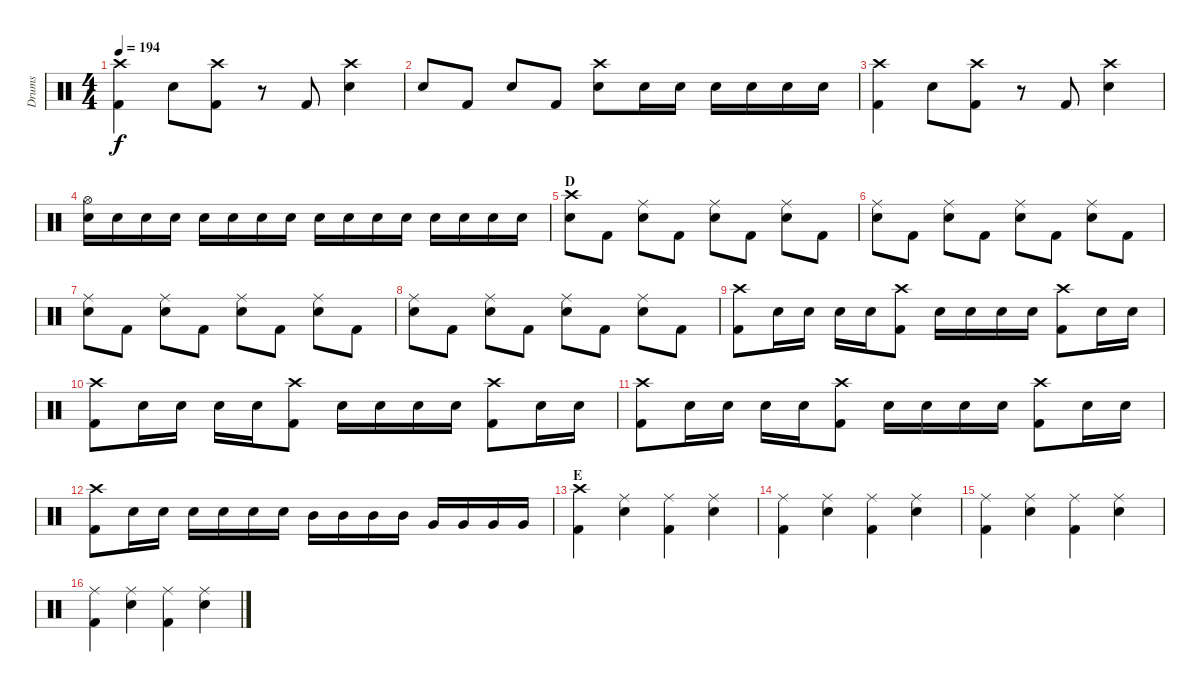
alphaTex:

\track ("Drums" "Drums") {instrument percussion}
\staff {score}
\articulation defaults
\ts (4 4)
\tempo 194
\clef neutral
\ks c
("Crash high (hit)" "Kick (hit) 2").4{dy f} "Electric Snare (hit)".8 ("Crash high (hit)" "Kick (hit) 2").8 r.8 "Kick (hit) 2".8 ("Crash high (hit)" "Electric Snare (hit)").4 |
"Electric Snare (hit)".8 "Kick (hit) 2".8 "Electric Snare (hit)".8 "Kick (hit) 2".8 ("Crash high (hit)" "Electric Snare (hit)").8 "Electric Snare (hit)".16 "Electric Snare (hit)".16 "Electric Snare (hit)".16 "Electric Snare (hit)".16 "Electric Snare (hit)".16 "Electric Snare (hit)".16 |
("Crash high (hit)" "Kick (hit) 2").4 "Electric Snare (hit)".8 ("Crash high (hit)" "Kick (hit) 2").8 r.8 "Kick (hit) 2".8 ("Crash high (hit)" "Electric Snare (hit)").4 |
("Hi-Hat (open)" "Electric Snare (hit)").16 "Electric Snare (hit)".16 "Electric Snare (hit)".16 "Electric Snare (hit)".16 "Electric Snare (hit)".16 "Electric Snare (hit)".16 "Electric Snare (hit)".16 "Electric Snare (hit)".16 "Electric Snare (hit)".16 "Electric Snare (hit)".16 "Electric Snare (hit)".16 "Electric Snare (hit)".16 "Electric Snare (hit)".16 "Electric Snare (hit)".16 "Electric Snare (hit)".16 "Electric Snare (hit)".16 |
\section ("" "D")
("Crash high (hit)" "Electric Snare (hit)").8 "Kick (hit) 2".8 ("Ride (middle)" "Electric Snare (hit)").8 "Kick (hit) 2".8 ("Ride (middle)" "Electric Snare (hit)").8 "Kick (hit) 2".8 ("Ride (middle)" "Electric Snare (hit)").8 "Kick (hit) 2".8 |
("Ride (middle)" "Electric Snare (hit)").8 "Kick (hit) 2".8 ("Ride (middle)" "Electric Snare (hit)").8 "Kick (hit) 2".8 ("Ride (middle)" "Electric Snare (hit)").8 "Kick (hit) 2".8 ("Ride (middle)" "Electric Snare (hit)").8 "Kick (hit) 2".8 |
("Ride (middle)" "Electric Snare (hit)").8 "Kick (hit) 2".8 ("Ride (middle)" "Electric Snare (hit)").8 "Kick (hit) 2".8 ("Ride (middle)" "Electric Snare (hit)").8 "Kick (hit) 2".8 ("Ride (middle)" "Electric Snare (hit)").8 "Kick (hit) 2".8 |
("Ride (middle)" "Electric Snare (hit)").8 "Kick (hit) 2".8 ("Ride (middle)" "Electric Snare (hit)").8 "Kick (hit) 2".8 ("Ride (middle)" "Electric Snare (hit)").8 "Kick (hit) 2".8 ("Ride (middle)" "Electric Snare (hit)").8 "Kick (hit) 2".8 |
("Crash high (hit)" "Kick (hit) 2").8 "Electric Snare (hit)".16 "Electric Snare (hit)".16 "Electric Snare (hit)".16 "Electric Snare (hit)".16 ("Crash high (hit)" "Kick (hit) 2").8 "Electric Snare (hit)".16 "Electric Snare (hit)".16 "Electric Snare (hit)".16 "Electric Snare (hit)".16 ("Crash high (hit)" "Kick (hit) 2").8 "Electric Snare (hit)".16 "Electric Snare (hit)".16 |
("Crash high (hit)" "Kick (hit) 2").8 "Electric Snare (hit)".16 "Electric Snare (hit)".16 "Electric Snare (hit)".16 "Electric Snare (hit)".16 ("Crash high (hit)" "Kick (hit) 2").8 "Electric Snare (hit)".16 "Electric Snare (hit)".16 "Electric Snare (hit)".16 "Electric Snare (hit)".16 ("Crash high (hit)" "Kick (hit) 2").8 "Electric Snare (hit)".16 "Electric Snare (hit)".16 |
("Crash high (hit)" "Kick (hit) 2").8 "Electric Snare (hit)".16 "Electric Snare (hit)".16 "Electric Snare (hit)".16 "Electric Snare (hit)".16 ("Crash high (hit)" "Kick (hit) 2").8 "Electric Snare (hit)".16 "Electric Snare (hit)".16 "Electric Snare (hit)".16 "Electric Snare (hit)".16 ("Crash high (hit)" "Kick (hit) 2").8 "Electric Snare (hit)".16 "Electric Snare (hit)".16 |
("Crash high (hit)" "Kick (hit) 2").8 "Electric Snare (hit)".16 "Electric Snare (hit)".16 "Electric Snare (hit)".16 "Electric Snare (hit)".16 "Electric Snare (hit)".16 "Electric Snare (hit)".16 "Mid Tom (hit)".16 "Mid Tom (hit)".16 "Mid Tom (hit)".16 "Mid Tom (hit)".16 "Very Low Tom (hit)".16 "Very Low Tom (hit)".16 "Very Low Tom (hit)".16 "Very Low Tom (hit)".16 |
\section ("" "E")
("Crash high (hit)" "Kick (hit) 2").4 ("Ride (middle)" "Electric Snare (hit)").4 ("Ride (middle)" "Kick (hit) 2").4 ("Ride (middle)" "Electric Snare (hit)").4 |
("Ride (middle)" "Kick (hit) 2").4 ("Ride (middle)" "Electric Snare (hit)").4 ("Ride (middle)" "Kick (hit) 2").4 ("Ride (middle)" "Electric Snare (hit)").4 |
("Ride (middle)" "Kick (hit) 2").4 ("Ride (middle)" "Electric Snare (hit)").4 ("Ride (middle)" "Kick (hit) 2").4 ("Ride (middle)" "Electric Snare (hit)").4 |
("Ride (middle)" "Kick (hit) 2").4 ("Ride (middle)" "Electric Snare (hit)").4 ("Ride (middle)" "Kick (hit) 2").4 ("Ride (middle)" "Electric Snare (hit)").4
